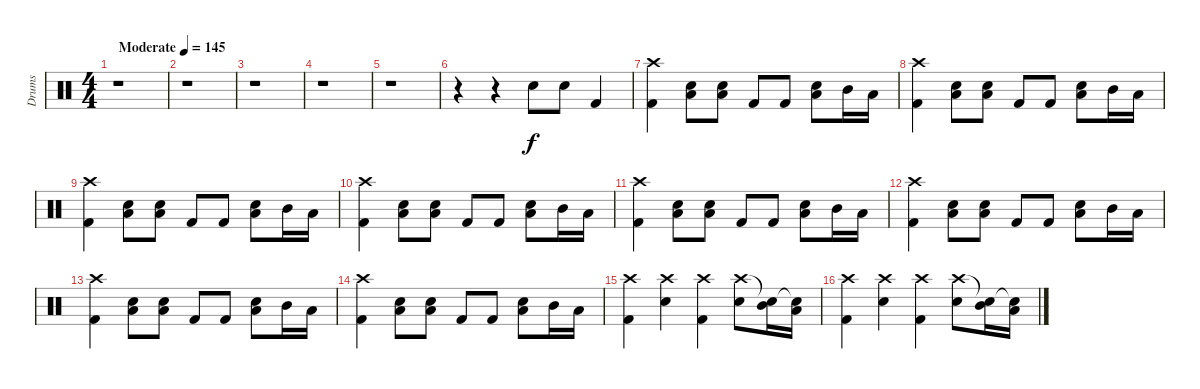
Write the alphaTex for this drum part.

\track ("Drums" "Drums") {instrument percussion}
\staff {score}
\articulation defaults
\ts (4 4)
\tempo (145 "Moderate")
\clef neutral
\ks c
r.1{dy f} |
r.1 |
r.1 |
r.1 |
r.1 |
r.4 r.4 "Snare (hit) 2".8 "Snare (hit) 2".8 "Kick (hit) 2".4 |
("Crash high (hit)" "Kick (hit) 2").4 ("Low Tom (hit)" "Snare (hit) 2").8 ("Low Tom (hit)" "Snare (hit) 2").8 "Kick (hit) 2".8 "Kick (hit) 2".8 ("Low Tom (hit)" "Snare (hit) 2").8 "Mid Tom (hit)".16 "Low Tom (hit)".16 |
("Crash high (hit)" "Kick (hit) 2").4 ("Low Tom (hit)" "Snare (hit) 2").8 ("Low Tom (hit)" "Snare (hit) 2").8 "Kick (hit) 2".8 "Kick (hit) 2".8 ("Low Tom (hit)" "Snare (hit) 2").8 "Mid Tom (hit)".16 "Low Tom (hit)".16 |
("Crash high (hit)" "Kick (hit) 2").4 ("Low Tom (hit)" "Snare (hit) 2").8 ("Low Tom (hit)" "Snare (hit) 2").8 "Kick (hit) 2".8 "Kick (hit) 2".8 ("Low Tom (hit)" "Snare (hit) 2").8 "Mid Tom (hit)".16 "Low Tom (hit)".16 |
("Crash high (hit)" "Kick (hit) 2").4 ("Low Tom (hit)" "Snare (hit) 2").8 ("Low Tom (hit)" "Snare (hit) 2").8 "Kick (hit) 2".8 "Kick (hit) 2".8 ("Low Tom (hit)" "Snare (hit) 2").8 "Mid Tom (hit)".16 "Low Tom (hit)".16 |
("Crash high (hit)" "Kick (hit) 2").4 ("Low Tom (hit)" "Snare (hit) 2").8 ("Low Tom (hit)" "Snare (hit) 2").8 "Kick (hit) 2".8 "Kick (hit) 2".8 ("Low Tom (hit)" "Snare (hit) 2").8 "Mid Tom (hit)".16 "Low Tom (hit)".16 |
("Crash high (hit)" "Kick (hit) 2").4 ("Low Tom (hit)" "Snare (hit) 2").8 ("Low Tom (hit)" "Snare (hit) 2").8 "Kick (hit) 2".8 "Kick (hit) 2".8 ("Low Tom (hit)" "Snare (hit) 2").8 "Mid Tom (hit)".16 "Low Tom (hit)".16 |
("Crash high (hit)" "Kick (hit) 2").4 ("Low Tom (hit)" "Snare (hit) 2").8 ("Low Tom (hit)" "Snare (hit) 2").8 "Kick (hit) 2".8 "Kick (hit) 2".8 ("Low Tom (hit)" "Snare (hit) 2").8 "Mid Tom (hit)".16 "Low Tom (hit)".16 |
("Crash high (hit)" "Kick (hit) 2").4 ("Low Tom (hit)" "Snare (hit) 2").8 ("Low Tom (hit)" "Snare (hit) 2").8 "Kick (hit) 2".8 "Kick (hit) 2".8 ("Low Tom (hit)" "Snare (hit) 2").8 "Mid Tom (hit)".16 "Low Tom (hit)".16 |
("Crash high (hit)" "Kick (hit) 2").4 ("Crash high (hit)" "Snare (hit) 2").4 ("Crash high (hit)" "Kick (hit) 2").4 ("Crash high (hit)" "Snare (hit) 2").8 ("Snare (hit)"{t} "Mid Tom (hit)").16 ("Snare (hit)"{t} "Low Tom (hit)").16 |
("Crash high (hit)" "Kick (hit) 2").4 ("Crash high (hit)" "Snare (hit) 2").4 ("Crash high (hit)" "Kick (hit) 2").4 ("Crash high (hit)" "Snare (hit) 2").8 ("Snare (hit)"{t} "Mid Tom (hit)").16 ("Snare (hit)"{t} "Low Tom (hit)").16
